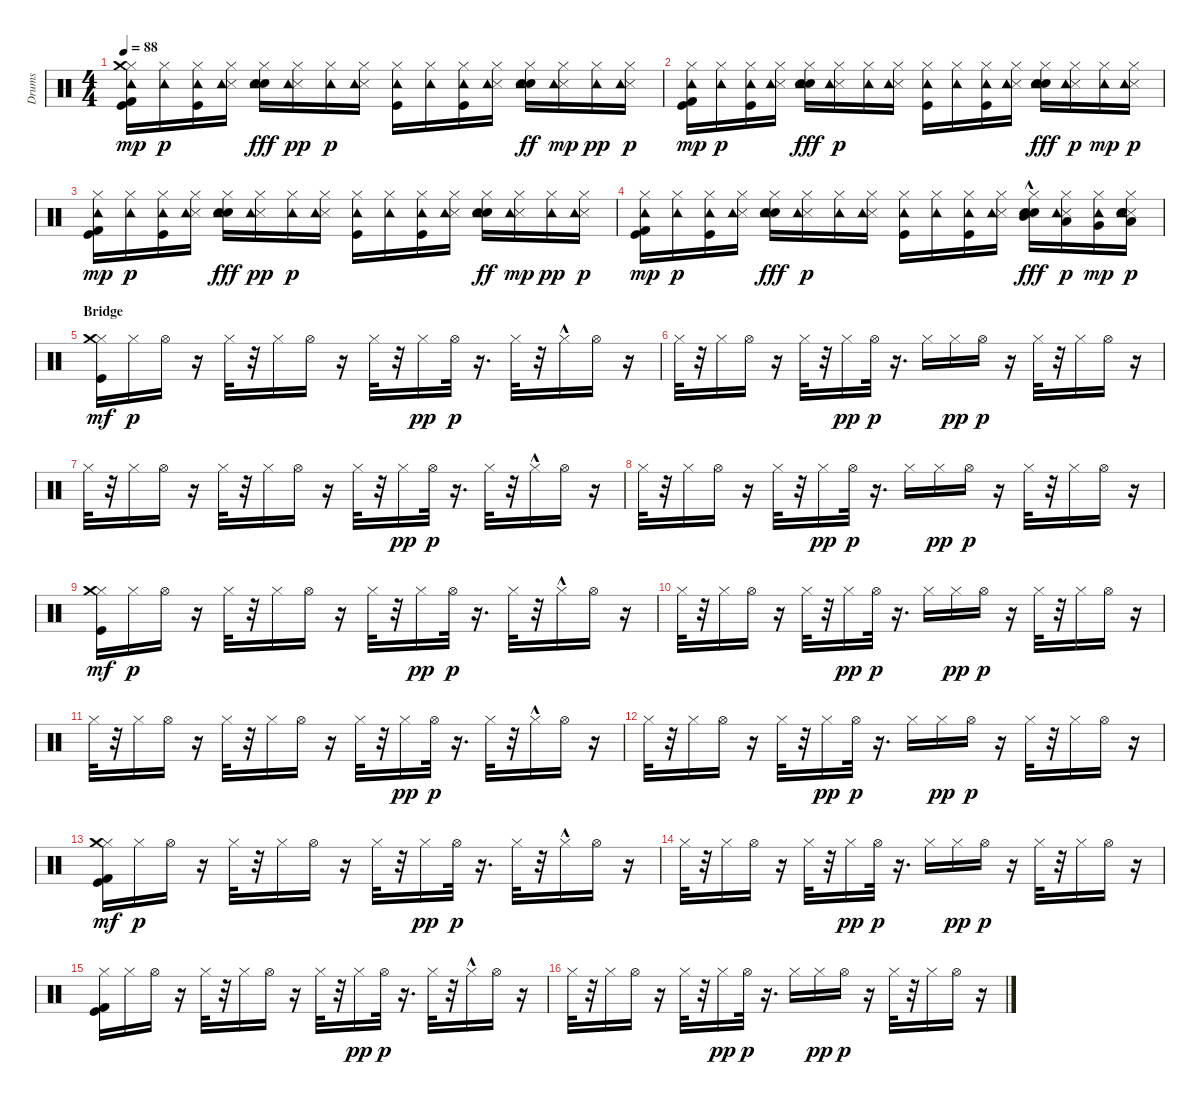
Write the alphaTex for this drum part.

\track ("Drums" "Drums") {instrument percussion}
\staff {score}
\articulation defaults
\ts (4 4)
\tempo 88
\clef neutral
\ks c
("Kick (hit)" "Kick (hit) 2" "Hi-Hat (closed)" "Crash medium (hit)" "Tambourine (hit)").16{dy mp} ("Hi-Hat (closed)" "Tambourine (hit)").16{dy p} ("Kick (hit)" "Hi-Hat (closed)" "Tambourine (hit)").16 ("Snare (side stick) 3" "Hi-Hat (closed)" "Tambourine (hit)").16 ("Electric Snare (hit)" "Snare (hit) 2" "Hi-Hat (closed)" "Tambourine (hit)").16{dy fff} ("Snare (side stick) 3" "Hi-Hat (closed)" "Tambourine (hit)").16{dy pp} ("Hi-Hat (closed)" "Tambourine (hit)").16{dy p} ("Snare (side stick) 3" "Hi-Hat (closed)" "Tambourine (hit)").16 ("Kick (hit)" "Hi-Hat (closed)" "Tambourine (hit)").16 ("Hi-Hat (closed)" "Tambourine (hit)").16 ("Kick (hit)" "Hi-Hat (closed)" "Tambourine (hit)").16 ("Snare (side stick) 3" "Hi-Hat (closed)" "Tambourine (hit)").16 ("Snare (hit) 2" "Electric Snare (hit)" "Hi-Hat (closed)" "Tambourine (hit)").16{dy ff} ("Snare (side stick) 3" "Hi-Hat (closed)" "Tambourine (hit)").16{dy mp} ("Hi-Hat (closed)" "Tambourine (hit)").16{dy pp} ("Snare (side stick) 3" "Hi-Hat (closed)" "Tambourine (hit)").16{dy p} |
("Kick (hit)" "Kick (hit) 2" "Hi-Hat (closed)" "Tambourine (hit)").16{dy mp} ("Hi-Hat (closed)" "Tambourine (hit)").16{dy p} ("Kick (hit)" "Hi-Hat (closed)" "Tambourine (hit)").16 ("Snare (side stick) 3" "Hi-Hat (closed)" "Tambourine (hit)").16 ("Snare (hit) 2" "Electric Snare (hit)" "Hi-Hat (closed)" "Tambourine (hit)").16{dy fff} ("Snare (side stick) 3" "Hi-Hat (closed)" "Tambourine (hit)").16{dy p} ("Hi-Hat (closed)" "Tambourine (hit)").16 ("Snare (side stick) 3" "Hi-Hat (closed)" "Tambourine (hit)").16 ("Kick (hit)" "Hi-Hat (closed)" "Tambourine (hit)").16 ("Hi-Hat (closed)" "Tambourine (hit)").16 ("Kick (hit)" "Hi-Hat (closed)" "Tambourine (hit)").16 ("Snare (side stick) 3" "Hi-Hat (closed)" "Tambourine (hit)").16 ("Snare (hit) 2" "Electric Snare (hit)" "Hi-Hat (closed)" "Tambourine (hit)").16{dy fff} ("Snare (side stick) 3" "Hi-Hat (closed)" "Tambourine (hit)").16{dy p} ("Hi-Hat (closed)" "Tambourine (hit)").16{dy mp} ("Snare (side stick) 3" "Hi-Hat (closed)" "Tambourine (hit)").16{dy p} |
("Kick (hit)" "Kick (hit) 2" "Hi-Hat (closed)" "Tambourine (hit)").16{dy mp} ("Hi-Hat (closed)" "Tambourine (hit)").16{dy p} ("Kick (hit)" "Hi-Hat (closed)" "Tambourine (hit)").16 ("Snare (side stick) 3" "Hi-Hat (closed)" "Tambourine (hit)").16 ("Electric Snare (hit)" "Snare (hit) 2" "Hi-Hat (closed)" "Tambourine (hit)").16{dy fff} ("Snare (side stick) 3" "Hi-Hat (closed)" "Tambourine (hit)").16{dy pp} ("Hi-Hat (closed)" "Tambourine (hit)").16{dy p} ("Snare (side stick) 3" "Hi-Hat (closed)" "Tambourine (hit)").16 ("Kick (hit)" "Hi-Hat (closed)" "Tambourine (hit)").16 ("Hi-Hat (closed)" "Tambourine (hit)").16 ("Kick (hit)" "Hi-Hat (closed)" "Tambourine (hit)").16 ("Snare (side stick) 3" "Hi-Hat (closed)" "Tambourine (hit)").16 ("Snare (hit) 2" "Electric Snare (hit)" "Hi-Hat (closed)" "Tambourine (hit)").16{dy ff} ("Snare (side stick) 3" "Hi-Hat (closed)" "Tambourine (hit)").16{dy mp} ("Hi-Hat (closed)" "Tambourine (hit)").16{dy pp} ("Snare (side stick) 3" "Hi-Hat (closed)" "Tambourine (hit)").16{dy p} |
("Kick (hit)" "Kick (hit) 2" "Hi-Hat (closed)" "Tambourine (hit)").16{dy mp} ("Hi-Hat (closed)" "Tambourine (hit)").16{dy p} ("Kick (hit)" "Hi-Hat (closed)" "Tambourine (hit)").16 ("Snare (side stick) 3" "Hi-Hat (closed)" "Tambourine (hit)").16 ("Snare (hit) 2" "Electric Snare (hit)" "Hi-Hat (closed)" "Tambourine (hit)").16{dy fff} ("Snare (side stick) 3" "Hi-Hat (closed)" "Tambourine (hit)").16{dy p} ("Hi-Hat (closed)" "Tambourine (hit)").16 ("Snare (side stick) 3" "Hi-Hat (closed)" "Tambourine (hit)").16 ("Kick (hit)" "Hi-Hat (closed)" "Tambourine (hit)").16 ("Hi-Hat (closed)" "Tambourine (hit)").16 ("Kick (hit)" "Hi-Hat (closed)" "Tambourine (hit)").16 ("Snare (side stick) 3" "Hi-Hat (closed)" "Tambourine (hit)").16 ("Electric Snare (hit)" "Snare (hit) 2"{hac} "Hi-Hat (closed)" "Mid Tom (hit)" "Tambourine (hit)").16{dy fff} ("Snare (side stick) 3" "Hi-Hat (closed)" "Low Tom (hit)" "Tambourine (hit)").16{dy p} ("Hi-Hat (closed)" "Very Low Tom (hit)" "Tambourine (hit)").16{dy mp} ("Snare (side stick) 3" "Electric Snare (hit)" "Snare (hit) 2" "Hi-Hat (closed)" "Low Floor Tom (hit)" "Tambourine (hit)").16{dy p} |
\section ("" "Bridge")
("Kick (hit)" "Hi-Hat (closed)" "Crash medium (hit)").16{dy mf} "Hi-Hat (closed)".16{dy p} "Hi-Hat (open)".16 r.16 "Hi-Hat (closed)".32 r.32 "Hi-Hat (closed)".16 "Hi-Hat (open)".16 r.16 "Hi-Hat (closed)".32 r.32 "Hi-Hat (closed)".16{dy pp} "Hi-Hat (open)".32{dy p} r.16{d} "Hi-Hat (closed)".32 r.32 "Hi-Hat (closed)"{hac}.16 "Hi-Hat (open)".16 r.16 |
"Hi-Hat (closed)".32 r.32 "Hi-Hat (closed)".16 "Hi-Hat (open)".16 r.16 "Hi-Hat (closed)".32 r.32 "Hi-Hat (closed)".16{dy pp} "Hi-Hat (open)".32{dy p} r.16{d} "Hi-Hat (closed)".16 "Hi-Hat (closed)".16{dy pp} "Hi-Hat (open)".16{dy p} r.16 "Hi-Hat (closed)".32 r.32 "Hi-Hat (closed)".16 "Hi-Hat (open)".16 r.16 |
"Hi-Hat (closed)".32 r.32 "Hi-Hat (closed)".16 "Hi-Hat (open)".16 r.16 "Hi-Hat (closed)".32 r.32 "Hi-Hat (closed)".16 "Hi-Hat (open)".16 r.16 "Hi-Hat (closed)".32 r.32 "Hi-Hat (closed)".16{dy pp} "Hi-Hat (open)".32{dy p} r.16{d} "Hi-Hat (closed)".32 r.32 "Hi-Hat (closed)"{hac}.16 "Hi-Hat (open)".16 r.16 |
"Hi-Hat (closed)".32 r.32 "Hi-Hat (closed)".16 "Hi-Hat (open)".16 r.16 "Hi-Hat (closed)".32 r.32 "Hi-Hat (closed)".16{dy pp} "Hi-Hat (open)".32{dy p} r.16{d} "Hi-Hat (closed)".16 "Hi-Hat (closed)".16{dy pp} "Hi-Hat (open)".16{dy p} r.16 "Hi-Hat (closed)".32 r.32 "Hi-Hat (closed)".16 "Hi-Hat (open)".16 r.16 |
("Kick (hit)" "Hi-Hat (closed)" "Crash medium (hit)").16{dy mf} "Hi-Hat (closed)".16{dy p} "Hi-Hat (open)".16 r.16 "Hi-Hat (closed)".32 r.32 "Hi-Hat (closed)".16 "Hi-Hat (open)".16 r.16 "Hi-Hat (closed)".32 r.32 "Hi-Hat (closed)".16{dy pp} "Hi-Hat (open)".32{dy p} r.16{d} "Hi-Hat (closed)".32 r.32 "Hi-Hat (closed)"{hac}.16 "Hi-Hat (open)".16 r.16 |
"Hi-Hat (closed)".32 r.32 "Hi-Hat (closed)".16 "Hi-Hat (open)".16 r.16 "Hi-Hat (closed)".32 r.32 "Hi-Hat (closed)".16{dy pp} "Hi-Hat (open)".32{dy p} r.16{d} "Hi-Hat (closed)".16 "Hi-Hat (closed)".16{dy pp} "Hi-Hat (open)".16{dy p} r.16 "Hi-Hat (closed)".32 r.32 "Hi-Hat (closed)".16 "Hi-Hat (open)".16 r.16 |
"Hi-Hat (closed)".32 r.32 "Hi-Hat (closed)".16 "Hi-Hat (open)".16 r.16 "Hi-Hat (closed)".32 r.32 "Hi-Hat (closed)".16 "Hi-Hat (open)".16 r.16 "Hi-Hat (closed)".32 r.32 "Hi-Hat (closed)".16{dy pp} "Hi-Hat (open)".32{dy p} r.16{d} "Hi-Hat (closed)".32 r.32 "Hi-Hat (closed)"{hac}.16 "Hi-Hat (open)".16 r.16 |
"Hi-Hat (closed)".32 r.32 "Hi-Hat (closed)".16 "Hi-Hat (open)".16 r.16 "Hi-Hat (closed)".32 r.32 "Hi-Hat (closed)".16{dy pp} "Hi-Hat (open)".32{dy p} r.16{d} "Hi-Hat (closed)".16 "Hi-Hat (closed)".16{dy pp} "Hi-Hat (open)".16{dy p} r.16 "Hi-Hat (closed)".32 r.32 "Hi-Hat (closed)".16 "Hi-Hat (open)".16 r.16 |
("Kick (hit)" "Kick (hit) 2" "Hi-Hat (closed)" "Crash medium (hit)").16{dy mf} "Hi-Hat (closed)".16{dy p} "Hi-Hat (open)".16 r.16 "Hi-Hat (closed)".32 r.32 "Hi-Hat (closed)".16 "Hi-Hat (open)".16 r.16 "Hi-Hat (closed)".32 r.32 "Hi-Hat (closed)".16{dy pp} "Hi-Hat (open)".32{dy p} r.16{d} "Hi-Hat (closed)".32 r.32 "Hi-Hat (closed)"{hac}.16 "Hi-Hat (open)".16 r.16 |
"Hi-Hat (closed)".32 r.32 "Hi-Hat (closed)".16 "Hi-Hat (open)".16 r.16 "Hi-Hat (closed)".32 r.32 "Hi-Hat (closed)".16{dy pp} "Hi-Hat (open)".32{dy p} r.16{d} "Hi-Hat (closed)".16 "Hi-Hat (closed)".16{dy pp} "Hi-Hat (open)".16{dy p} r.16 "Hi-Hat (closed)".32 r.32 "Hi-Hat (closed)".16 "Hi-Hat (open)".16 r.16 |
("Kick (hit)" "Kick (hit) 2" "Hi-Hat (closed)").16 "Hi-Hat (closed)".16 "Hi-Hat (open)".16 r.16 "Hi-Hat (closed)".32 r.32 "Hi-Hat (closed)".16 "Hi-Hat (open)".16 r.16 "Hi-Hat (closed)".32 r.32 "Hi-Hat (closed)".16{dy pp} "Hi-Hat (open)".32{dy p} r.16{d} "Hi-Hat (closed)".32 r.32 "Hi-Hat (closed)"{hac}.16 "Hi-Hat (open)".16 r.16 |
"Hi-Hat (closed)".32 r.32 "Hi-Hat (closed)".16 "Hi-Hat (open)".16 r.16 "Hi-Hat (closed)".32 r.32 "Hi-Hat (closed)".16{dy pp} "Hi-Hat (open)".32{dy p} r.16{d} "Hi-Hat (closed)".16 "Hi-Hat (closed)".16{dy pp} "Hi-Hat (open)".16{dy p} r.16 "Hi-Hat (closed)".32 r.32 "Hi-Hat (closed)".16 "Hi-Hat (open)".16 r.16
